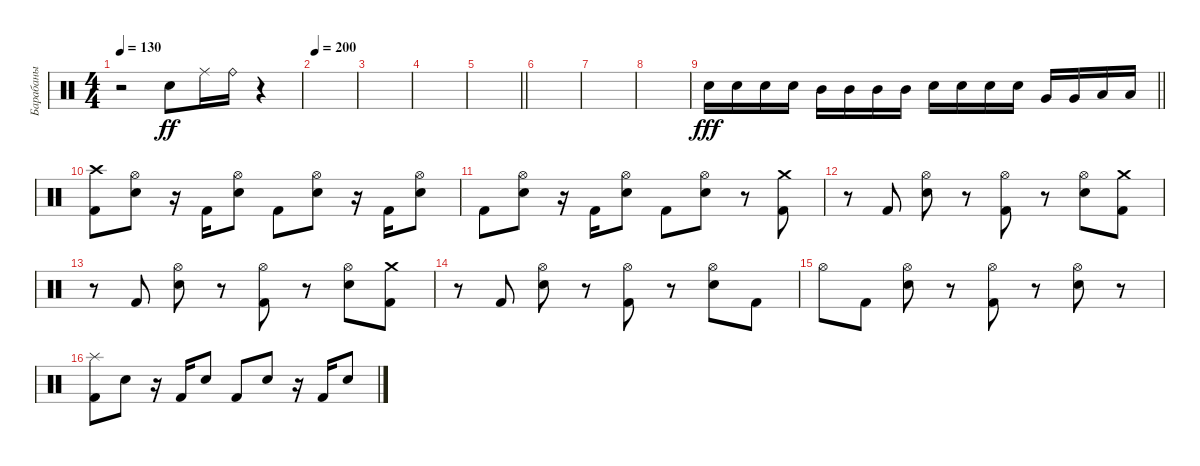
\track ("Барабаны" "Барабаны") {instrument percussion}
\staff {score}
\articulation defaults
\ts (4 4)
\tempo 130
\clef neutral
\ks c
r.2{dy ff} "Snare (hit) 2".8 "Ride (middle)".16 "Ride (bell)".16 r.4 |
\tempo 200
|
|
|
\barLineRight lightlight
|
\section ("" " ")
|
|
|
\barLineRight lightlight "Snare (hit) 2".16{dy fff} "Snare (hit) 2".16 "Snare (hit) 2".16 "Snare (hit) 2".16 "Mid Tom (hit)".16 "Mid Tom (hit)".16 "Mid Tom (hit)".16 "Mid Tom (hit)".16 "Snare (hit) 2".16 "Snare (hit) 2".16 "Snare (hit) 2".16 "Snare (hit) 2".16 "Very Low Tom (hit)".16 "Very Low Tom (hit)".16 "Low Floor Tom (hit)".16 "Low Floor Tom (hit)".16
|
\section ("" " ")
("Kick (hit) 2" "Crash high (hit)").8 ("Snare (hit) 2" "Hi-Hat (open)").8 r.16 "Kick (hit) 2".16 ("Snare (hit) 2" "Hi-Hat (open)").8 "Kick (hit) 2".8 ("Snare (hit) 2" "Hi-Hat (open)").8 r.16 "Kick (hit) 2".16 ("Snare (hit) 2" "Hi-Hat (open)").8 |
"Kick (hit) 2".8 ("Snare (hit) 2" "Hi-Hat (open)").8 r.16 "Kick (hit) 2".16 ("Snare (hit) 2" "Hi-Hat (open)").8 "Kick (hit) 2".8 ("Snare (hit) 2" "Hi-Hat (open)").8 r.8 ("Crash medium (hit)" "Kick (hit) 2").8 |
r.8 "Kick (hit) 2".8 ("Hi-Hat (open)" "Snare (hit) 2").8 r.8 ("Hi-Hat (open)" "Kick (hit) 2").8 r.8 ("Hi-Hat (open)" "Snare (hit) 2").8 ("Crash medium (hit)" "Kick (hit) 2").8 |
r.8 "Kick (hit) 2".8 ("Hi-Hat (open)" "Snare (hit) 2").8 r.8 ("Hi-Hat (open)" "Kick (hit) 2").8 r.8 ("Hi-Hat (open)" "Snare (hit) 2").8 ("Crash medium (hit)" "Kick (hit) 2").8 |
r.8 "Kick (hit) 2".8 ("Hi-Hat (open)" "Snare (hit) 2").8 r.8 ("Hi-Hat (open)" "Kick (hit) 2").8 r.8 ("Hi-Hat (open)" "Snare (hit) 2").8 "Kick (hit) 2".8 |
"Hi-Hat (open)".8 "Kick (hit) 2".8 ("Hi-Hat (open)" "Snare (hit) 2").8 r.8 ("Hi-Hat (open)" "Kick (hit) 2").8 r.8 ("Hi-Hat (open)" "Snare (hit) 2").8 r.8 |
("Kick (hit) 2" "Splash (hit)").8 "Snare (hit) 2".8 r.16 "Kick (hit) 2".16 "Snare (hit) 2".8 "Kick (hit) 2".8 "Snare (hit) 2".8 r.16 "Kick (hit) 2".16 "Snare (hit) 2".8
